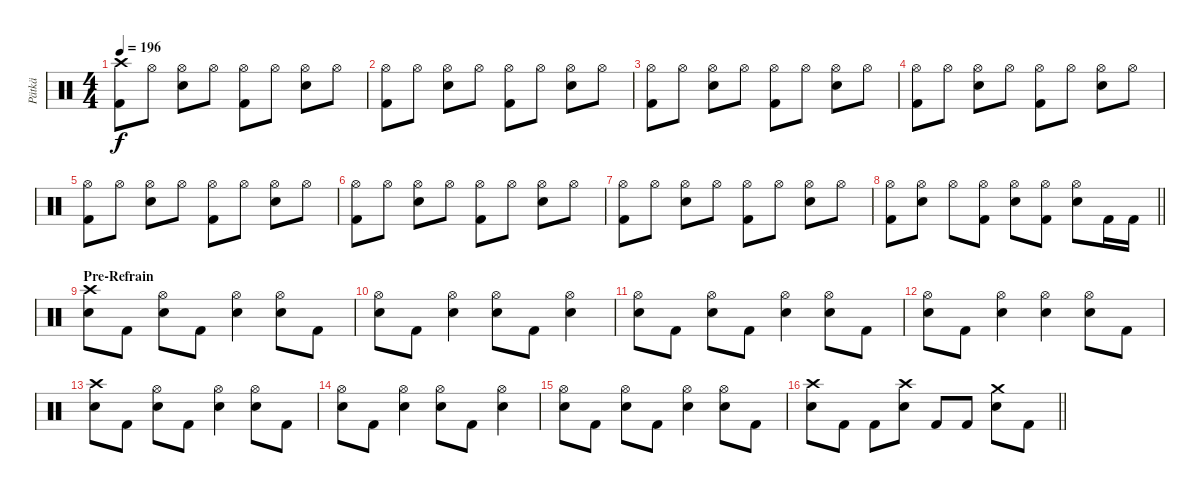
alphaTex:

\track ("Pätkä" "Pätkä") {instrument percussion}
\staff {score}
\articulation defaults
\ts (4 4)
\tempo 196
\clef neutral
\ks c
("Crash high (hit)" "Kick (hit) 2").8{dy f} "Hi-Hat (open)".8 ("Hi-Hat (open)" "Electric Snare (hit)").8 "Hi-Hat (open)".8 ("Hi-Hat (open)" "Kick (hit) 2").8 "Hi-Hat (open)".8 ("Hi-Hat (open)" "Electric Snare (hit)").8 "Hi-Hat (open)".8 |
("Hi-Hat (open)" "Kick (hit) 2").8 "Hi-Hat (open)".8 ("Hi-Hat (open)" "Electric Snare (hit)").8 "Hi-Hat (open)".8 ("Hi-Hat (open)" "Kick (hit) 2").8 "Hi-Hat (open)".8 ("Hi-Hat (open)" "Electric Snare (hit)").8 "Hi-Hat (open)".8 |
("Hi-Hat (open)" "Kick (hit) 2").8 "Hi-Hat (open)".8 ("Hi-Hat (open)" "Electric Snare (hit)").8 "Hi-Hat (open)".8 ("Hi-Hat (open)" "Kick (hit) 2").8 "Hi-Hat (open)".8 ("Hi-Hat (open)" "Electric Snare (hit)").8 "Hi-Hat (open)".8 |
("Hi-Hat (open)" "Kick (hit) 2").8 "Hi-Hat (open)".8 ("Hi-Hat (open)" "Electric Snare (hit)").8 "Hi-Hat (open)".8 ("Hi-Hat (open)" "Kick (hit) 2").8 "Hi-Hat (open)".8 ("Hi-Hat (open)" "Electric Snare (hit)").8 "Hi-Hat (open)".8 |
("Hi-Hat (open)" "Kick (hit) 2").8 "Hi-Hat (open)".8 ("Hi-Hat (open)" "Electric Snare (hit)").8 "Hi-Hat (open)".8 ("Hi-Hat (open)" "Kick (hit) 2").8 "Hi-Hat (open)".8 ("Hi-Hat (open)" "Electric Snare (hit)").8 "Hi-Hat (open)".8 |
("Hi-Hat (open)" "Kick (hit) 2").8 "Hi-Hat (open)".8 ("Hi-Hat (open)" "Electric Snare (hit)").8 "Hi-Hat (open)".8 ("Hi-Hat (open)" "Kick (hit) 2").8 "Hi-Hat (open)".8 ("Hi-Hat (open)" "Electric Snare (hit)").8 "Hi-Hat (open)".8 |
("Hi-Hat (open)" "Kick (hit) 2").8 "Hi-Hat (open)".8 ("Hi-Hat (open)" "Electric Snare (hit)").8 "Hi-Hat (open)".8 ("Hi-Hat (open)" "Kick (hit) 2").8 "Hi-Hat (open)".8 ("Hi-Hat (open)" "Electric Snare (hit)").8 "Hi-Hat (open)".8 |
\barLineRight lightlight
("Hi-Hat (open)" "Kick (hit) 2").8 ("Hi-Hat (open)" "Electric Snare (hit)").8 "Hi-Hat (open)".8 ("Hi-Hat (open)" "Kick (hit) 2").8 ("Hi-Hat (open)" "Electric Snare (hit)").8 ("Hi-Hat (open)" "Kick (hit) 2").8 ("Hi-Hat (open)" "Electric Snare (hit)").8 "Kick (hit) 2".16 "Kick (hit) 2".16 |
\section ("" "Pre-Refrain")
("Crash high (hit)" "Electric Snare (hit)").8 "Kick (hit) 2".8 ("Hi-Hat (open)" "Electric Snare (hit)").8 "Kick (hit) 2".8 ("Hi-Hat (open)" "Electric Snare (hit)").4 ("Hi-Hat (open)" "Electric Snare (hit)").8 "Kick (hit) 2".8 |
("Hi-Hat (open)" "Electric Snare (hit)").8 "Kick (hit) 2".8 ("Hi-Hat (open)" "Electric Snare (hit)").4 ("Hi-Hat (open)" "Electric Snare (hit)").8 "Kick (hit) 2".8 ("Hi-Hat (open)" "Electric Snare (hit)").4 |
("Hi-Hat (open)" "Electric Snare (hit)").8 "Kick (hit) 2".8 ("Hi-Hat (open)" "Electric Snare (hit)").8 "Kick (hit) 2".8 ("Hi-Hat (open)" "Electric Snare (hit)").4 ("Hi-Hat (open)" "Electric Snare (hit)").8 "Kick (hit) 2".8 |
("Hi-Hat (open)" "Electric Snare (hit)").8 "Kick (hit) 2".8 ("Hi-Hat (open)" "Electric Snare (hit)").4 ("Hi-Hat (open)" "Electric Snare (hit)").4 ("Hi-Hat (open)" "Electric Snare (hit)").8 "Kick (hit) 2".8 |
("Crash high (hit)" "Electric Snare (hit)").8 "Kick (hit) 2".8 ("Hi-Hat (open)" "Electric Snare (hit)").8 "Kick (hit) 2".8 ("Hi-Hat (open)" "Electric Snare (hit)").4 ("Hi-Hat (open)" "Electric Snare (hit)").8 "Kick (hit) 2".8 |
("Hi-Hat (open)" "Electric Snare (hit)").8 "Kick (hit) 2".8 ("Hi-Hat (open)" "Electric Snare (hit)").4 ("Hi-Hat (open)" "Electric Snare (hit)").8 "Kick (hit) 2".8 ("Hi-Hat (open)" "Electric Snare (hit)").4 |
("Hi-Hat (open)" "Electric Snare (hit)").8 "Kick (hit) 2".8 ("Hi-Hat (open)" "Electric Snare (hit)").8 "Kick (hit) 2".8 ("Hi-Hat (open)" "Electric Snare (hit)").4 ("Hi-Hat (open)" "Electric Snare (hit)").8 "Kick (hit) 2".8 |
\barLineRight lightlight
("Crash high (hit)" "Electric Snare (hit)").8 "Kick (hit) 2".8 "Kick (hit) 2".8 ("Crash high (hit)" "Electric Snare (hit)").8 "Kick (hit) 2".8 "Kick (hit) 2".8 ("Crash medium (hit)" "Electric Snare (hit)").8 "Kick (hit) 2".8
